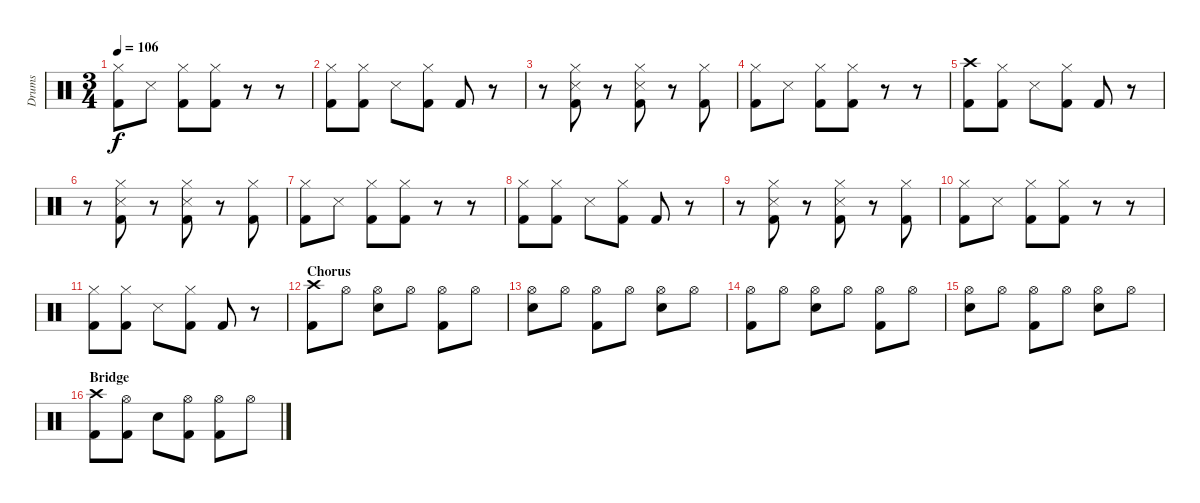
\track ("Drums" "Drums") {instrument percussion}
\staff {score}
\articulation defaults
\ts (3 4)
\tempo 106
\clef neutral
\ks c
("Hi-Hat (closed)" "Kick (hit) 2").8{dy f} "Snare (side stick) 3".8 ("Hi-Hat (closed)" "Kick (hit) 2").8 ("Hi-Hat (closed)" "Kick (hit) 2").8 r.8 r.8 |
("Hi-Hat (closed)" "Kick (hit) 2").8 ("Hi-Hat (closed)" "Kick (hit) 2").8 "Snare (side stick) 3".8 ("Hi-Hat (closed)" "Kick (hit) 2").8 "Kick (hit) 2".8 r.8 |
r.8 ("Hi-Hat (closed)" "Snare (side stick) 3" "Kick (hit) 2").8 r.8 ("Hi-Hat (closed)" "Snare (side stick) 3" "Kick (hit) 2").8 r.8 ("Hi-Hat (closed)" "Kick (hit) 2").8 |
("Hi-Hat (closed)" "Kick (hit) 2").8 "Snare (side stick) 3".8 ("Hi-Hat (closed)" "Kick (hit) 2").8 ("Hi-Hat (closed)" "Kick (hit) 2").8 r.8 r.8 |
("Crash high (hit)" "Kick (hit) 2").8 ("Hi-Hat (closed)" "Kick (hit) 2").8 "Snare (side stick) 3".8 ("Hi-Hat (closed)" "Kick (hit) 2").8 "Kick (hit) 2".8 r.8 |
r.8 ("Hi-Hat (closed)" "Snare (side stick) 3" "Kick (hit) 2").8 r.8 ("Hi-Hat (closed)" "Snare (side stick) 3" "Kick (hit) 2").8 r.8 ("Hi-Hat (closed)" "Kick (hit) 2").8 |
("Hi-Hat (closed)" "Kick (hit) 2").8 "Snare (side stick) 3".8 ("Hi-Hat (closed)" "Kick (hit) 2").8 ("Hi-Hat (closed)" "Kick (hit) 2").8 r.8 r.8 |
("Hi-Hat (closed)" "Kick (hit) 2").8 ("Hi-Hat (closed)" "Kick (hit) 2").8 "Snare (side stick) 3".8 ("Hi-Hat (closed)" "Kick (hit) 2").8 "Kick (hit) 2".8 r.8 |
r.8 ("Hi-Hat (closed)" "Snare (side stick) 3" "Kick (hit) 2").8 r.8 ("Hi-Hat (closed)" "Snare (side stick) 3" "Kick (hit) 2").8 r.8 ("Hi-Hat (closed)" "Kick (hit) 2").8 |
("Hi-Hat (closed)" "Kick (hit) 2").8 "Snare (side stick) 3".8 ("Hi-Hat (closed)" "Kick (hit) 2").8 ("Hi-Hat (closed)" "Kick (hit) 2").8 r.8 r.8 |
("Hi-Hat (closed)" "Kick (hit) 2").8 ("Hi-Hat (closed)" "Kick (hit) 2").8 "Snare (side stick) 3".8 ("Hi-Hat (closed)" "Kick (hit) 2").8 "Kick (hit) 2".8 r.8 |
\section ("" "Chorus")
("Crash high (hit)" "Kick (hit) 2").8 "Hi-Hat (open)".8 ("Hi-Hat (open)" "Snare (hit) 2").8 "Hi-Hat (open)".8 ("Hi-Hat (open)" "Kick (hit) 2").8 "Hi-Hat (open)".8 |
("Hi-Hat (open)" "Snare (hit) 2").8 "Hi-Hat (open)".8 ("Hi-Hat (open)" "Kick (hit) 2").8 "Hi-Hat (open)".8 ("Hi-Hat (open)" "Snare (hit) 2").8 "Hi-Hat (open)".8 |
("Hi-Hat (open)" "Kick (hit) 2").8 "Hi-Hat (open)".8 ("Hi-Hat (open)" "Snare (hit) 2").8 "Hi-Hat (open)".8 ("Hi-Hat (open)" "Kick (hit) 2").8 "Hi-Hat (open)".8 |
("Hi-Hat (open)" "Snare (hit) 2").8 "Hi-Hat (open)".8 ("Hi-Hat (open)" "Kick (hit) 2").8 "Hi-Hat (open)".8 ("Hi-Hat (open)" "Snare (hit) 2").8 "Hi-Hat (open)".8 |
\section ("" "Bridge")
("Crash high (hit)" "Kick (hit) 2").8 ("Hi-Hat (open)" "Kick (hit) 2").8 "Snare (hit) 2".8 ("Hi-Hat (open)" "Kick (hit) 2").8 ("Hi-Hat (open)" "Kick (hit) 2").8 "Hi-Hat (open)".8
